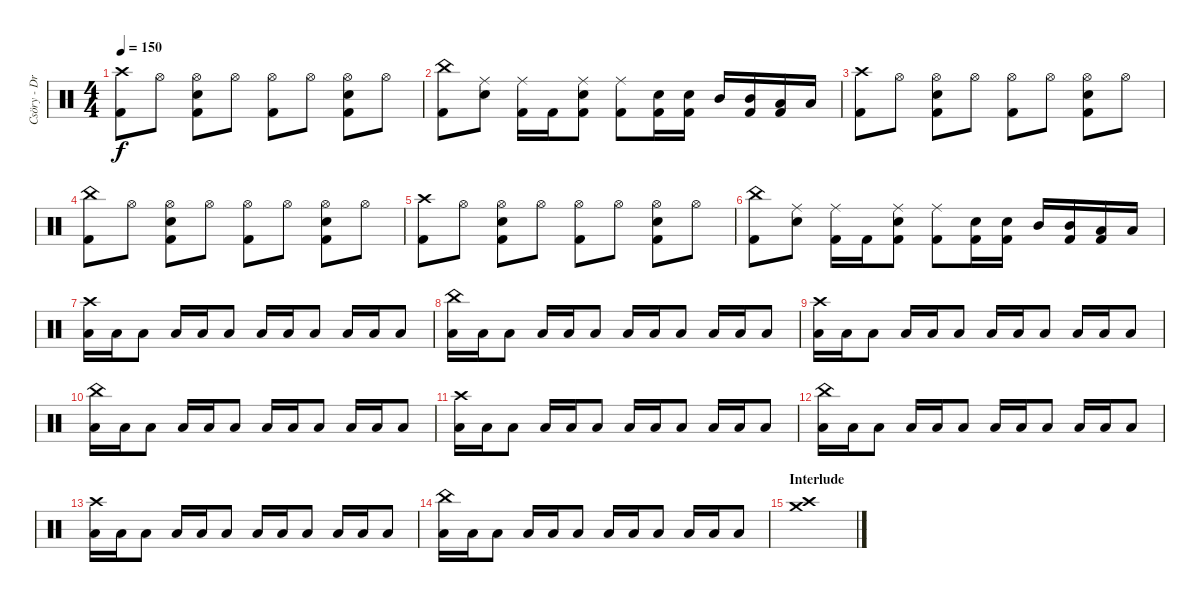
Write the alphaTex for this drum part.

\track ("Csöry - DrumZ" "Csöry - Dr") {instrument percussion}
\staff {score}
\articulation defaults
\ts (4 4)
\tempo 150
\clef neutral
\ks c
("Crash high (hit)" "Kick (hit) 2").8{dy f} "Hi-Hat (open)".8 ("Hi-Hat (open)" "Snare (hit) 2" "Kick (hit) 2").8 "Hi-Hat (open)".8 ("Hi-Hat (open)" "Kick (hit) 2").8 "Hi-Hat (open)".8 ("Hi-Hat (open)" "Snare (hit) 2" "Kick (hit) 2").8 "Hi-Hat (open)".8 |
("China (hit)" "Kick (hit) 2").8 ("Ride (middle)" "Snare (hit) 2").8 ("Ride (middle)" "Kick (hit) 2").16 "Kick (hit) 2".16 ("Ride (middle)" "Snare (hit) 2" "Kick (hit) 2").8 ("Ride (middle)" "Kick (hit) 2").8 ("Snare (hit) 2" "Kick (hit) 2").16 ("Snare (hit) 2" "Kick (hit) 2").16 "Mid Tom (hit)".16 ("Mid Tom (hit)" "Kick (hit) 2").16 ("Low Tom (hit)" "Kick (hit) 2").16 "Low Floor Tom (hit)".16 |
("Crash high (hit)" "Kick (hit) 2").8 "Hi-Hat (open)".8 ("Hi-Hat (open)" "Snare (hit) 2" "Kick (hit) 2").8 "Hi-Hat (open)".8 ("Hi-Hat (open)" "Kick (hit) 2").8 "Hi-Hat (open)".8 ("Hi-Hat (open)" "Snare (hit) 2" "Kick (hit) 2").8 "Hi-Hat (open)".8 |
("China (hit)" "Kick (hit) 2").8 "Hi-Hat (open)".8 ("Hi-Hat (open)" "Snare (hit) 2" "Kick (hit) 2").8 "Hi-Hat (open)".8 ("Hi-Hat (open)" "Kick (hit) 2").8 "Hi-Hat (open)".8 ("Hi-Hat (open)" "Snare (hit) 2" "Kick (hit) 2").8 "Hi-Hat (open)".8 |
("Crash high (hit)" "Kick (hit) 2").8 "Hi-Hat (open)".8 ("Hi-Hat (open)" "Snare (hit) 2" "Kick (hit) 2").8 "Hi-Hat (open)".8 ("Hi-Hat (open)" "Kick (hit) 2").8 "Hi-Hat (open)".8 ("Hi-Hat (open)" "Snare (hit) 2" "Kick (hit) 2").8 "Hi-Hat (open)".8 |
("China (hit)" "Kick (hit) 2").8 ("Ride (middle)" "Snare (hit) 2").8 ("Ride (middle)" "Kick (hit) 2").16 "Kick (hit) 2".16 ("Ride (middle)" "Snare (hit) 2" "Kick (hit) 2").8 ("Ride (middle)" "Kick (hit) 2").8 ("Snare (hit) 2" "Kick (hit) 2").16 ("Snare (hit) 2" "Kick (hit) 2").16 "Mid Tom (hit)".16 ("Mid Tom (hit)" "Kick (hit) 2").16 ("Low Tom (hit)" "Kick (hit) 2").16 "Low Floor Tom (hit)".16 |
("Crash high (hit)" "Low Tom (hit)").16 "Low Tom (hit)".16 "Low Tom (hit)".8 "Low Tom (hit)".16 "Low Tom (hit)".16 "Low Tom (hit)".8 "Low Tom (hit)".16 "Low Tom (hit)".16 "Low Tom (hit)".8 "Low Tom (hit)".16 "Low Tom (hit)".16 "Low Tom (hit)".8 |
("China (hit)" "Low Tom (hit)").16 "Low Tom (hit)".16 "Low Tom (hit)".8 "Low Tom (hit)".16 "Low Tom (hit)".16 "Low Tom (hit)".8 "Low Tom (hit)".16 "Low Tom (hit)".16 "Low Tom (hit)".8 "Low Tom (hit)".16 "Low Tom (hit)".16 "Low Tom (hit)".8 |
("Crash high (hit)" "Low Tom (hit)").16 "Low Tom (hit)".16 "Low Tom (hit)".8 "Low Tom (hit)".16 "Low Tom (hit)".16 "Low Tom (hit)".8 "Low Tom (hit)".16 "Low Tom (hit)".16 "Low Tom (hit)".8 "Low Tom (hit)".16 "Low Tom (hit)".16 "Low Tom (hit)".8 |
("China (hit)" "Low Tom (hit)").16 "Low Tom (hit)".16 "Low Tom (hit)".8 "Low Tom (hit)".16 "Low Tom (hit)".16 "Low Tom (hit)".8 "Low Tom (hit)".16 "Low Tom (hit)".16 "Low Tom (hit)".8 "Low Tom (hit)".16 "Low Tom (hit)".16 "Low Tom (hit)".8 |
("Crash high (hit)" "Low Tom (hit)").16 "Low Tom (hit)".16 "Low Tom (hit)".8 "Low Tom (hit)".16 "Low Tom (hit)".16 "Low Tom (hit)".8 "Low Tom (hit)".16 "Low Tom (hit)".16 "Low Tom (hit)".8 "Low Tom (hit)".16 "Low Tom (hit)".16 "Low Tom (hit)".8 |
("China (hit)" "Low Tom (hit)").16 "Low Tom (hit)".16 "Low Tom (hit)".8 "Low Tom (hit)".16 "Low Tom (hit)".16 "Low Tom (hit)".8 "Low Tom (hit)".16 "Low Tom (hit)".16 "Low Tom (hit)".8 "Low Tom (hit)".16 "Low Tom (hit)".16 "Low Tom (hit)".8 |
("Crash high (hit)" "Low Tom (hit)").16 "Low Tom (hit)".16 "Low Tom (hit)".8 "Low Tom (hit)".16 "Low Tom (hit)".16 "Low Tom (hit)".8 "Low Tom (hit)".16 "Low Tom (hit)".16 "Low Tom (hit)".8 "Low Tom (hit)".16 "Low Tom (hit)".16 "Low Tom (hit)".8 |
("China (hit)" "Low Tom (hit)").16 "Low Tom (hit)".16 "Low Tom (hit)".8 "Low Tom (hit)".16 "Low Tom (hit)".16 "Low Tom (hit)".8 "Low Tom (hit)".16 "Low Tom (hit)".16 "Low Tom (hit)".8 "Low Tom (hit)".16 "Low Tom (hit)".16 "Low Tom (hit)".8 |
\section ("" "Interlude")
("Crash high (hit)" "Crash medium (hit)").1
